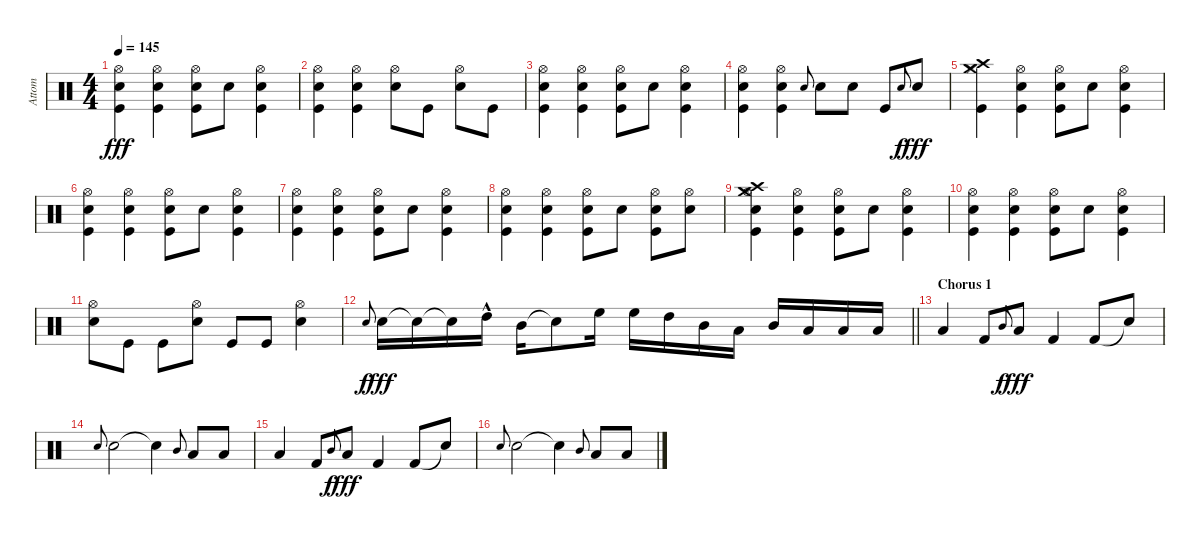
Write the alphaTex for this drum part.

\track ("Attom" "Attom") {instrument percussion}
\staff {score}
\articulation defaults
\ts (4 4)
\tempo 145
\clef neutral
\ks c
("Hi-Hat (open)" "Snare (hit) 2" "Kick (hit)").4{dy fff} ("Hi-Hat (open)" "Snare (hit) 2" "Kick (hit)").4 ("Hi-Hat (open)" "Snare (hit) 2" "Kick (hit)").8 "Snare (hit) 2".8 ("Hi-Hat (open)" "Snare (hit) 2" "Kick (hit)").4 |
("Hi-Hat (open)" "Snare (hit) 2" "Kick (hit)").4 ("Hi-Hat (open)" "Snare (hit) 2" "Kick (hit)").4 ("Hi-Hat (open)" "Snare (hit) 2").8 "Kick (hit)".8 ("Hi-Hat (open)" "Snare (hit) 2").8 "Kick (hit)".8 |
("Hi-Hat (open)" "Snare (hit) 2" "Kick (hit)").4 ("Hi-Hat (open)" "Snare (hit) 2" "Kick (hit)").4 ("Hi-Hat (open)" "Snare (hit) 2" "Kick (hit)").8 "Snare (hit) 2".8 ("Hi-Hat (open)" "Snare (hit) 2" "Kick (hit)").4 |
("Hi-Hat (open)" "Snare (hit) 2" "Kick (hit)").4 ("Hi-Hat (open)" "Snare (hit) 2" "Kick (hit)").4 "Snare (hit) 2".8{gr onbeat} "Snare (hit) 2".8 "Snare (hit) 2".8 "Kick (hit)".8 "Snare (hit) 2".8{gr onbeat dy f} "Snare (hit) 2".8{dy fff} |
("Hi-Hat (closed)" "Crash medium (hit)" "Crash high (hit)" "Kick (hit)").4 ("Hi-Hat (open)" "Snare (hit) 2" "Kick (hit)").4 ("Hi-Hat (open)" "Snare (hit) 2" "Kick (hit)").8 "Snare (hit) 2".8 ("Hi-Hat (open)" "Snare (hit) 2" "Kick (hit)").4 |
("Hi-Hat (open)" "Snare (hit) 2" "Kick (hit)").4 ("Hi-Hat (open)" "Snare (hit) 2" "Kick (hit)").4 ("Hi-Hat (open)" "Snare (hit) 2" "Kick (hit)").8 "Snare (hit) 2".8 ("Hi-Hat (open)" "Snare (hit) 2" "Kick (hit)").4 |
("Hi-Hat (open)" "Snare (hit) 2" "Kick (hit)").4 ("Hi-Hat (open)" "Snare (hit) 2" "Kick (hit)").4 ("Hi-Hat (open)" "Snare (hit) 2" "Kick (hit)").8 "Snare (hit) 2".8 ("Hi-Hat (open)" "Snare (hit) 2" "Kick (hit)").4 |
("Hi-Hat (open)" "Snare (hit) 2" "Kick (hit)").4 ("Hi-Hat (open)" "Snare (hit) 2" "Kick (hit)").4 ("Hi-Hat (open)" "Snare (hit) 2" "Kick (hit)").8 "Snare (hit) 2".8 ("Hi-Hat (open)" "Snare (hit) 2" "Kick (hit)").8 ("Hi-Hat (open)" "Snare (hit) 2").8 |
("Hi-Hat (open)" "Snare (hit) 2" "Crash high (hit)" "Crash medium (hit)" "Kick (hit)").4 ("Hi-Hat (open)" "Snare (hit) 2" "Kick (hit)").4 ("Hi-Hat (open)" "Snare (hit) 2" "Kick (hit)").8 "Snare (hit) 2".8 ("Hi-Hat (open)" "Snare (hit) 2" "Kick (hit)").4 |
("Hi-Hat (open)" "Snare (hit) 2" "Kick (hit)").4 ("Hi-Hat (open)" "Snare (hit) 2" "Kick (hit)").4 ("Hi-Hat (open)" "Snare (hit) 2" "Kick (hit)").8 "Snare (hit) 2".8 ("Hi-Hat (open)" "Snare (hit) 2" "Kick (hit)").4 |
("Hi-Hat (open)" "Snare (hit) 2").8 "Kick (hit)".8 "Kick (hit)".8 ("Hi-Hat (open)" "Snare (hit) 2").8 "Kick (hit)".8 "Kick (hit)".8 ("Snare (hit) 2" "Hi-Hat (open)").4 |
\barLineRight lightlight "Snare (hit) 2".8{gr onbeat dy f} "Snare (hit) 2".16{dy fff} "Snare (hit) 2"{t}.16 "Snare (hit) 2"{t}.16 "High Tom (hit)"{hac}.16 "Mid Tom (hit)".16 "Snare (hit)"{t}.8 "High Floor Tom (hit)".16 "High Floor Tom (hit)".16 "High Tom (hit)".16 "Mid Tom (hit)".16 "Low Tom (hit)".16 "Mid Tom (hit)".16 "Low Tom (hit)".16 "Low Floor Tom (hit)".16 "Low Floor Tom (hit)".16
|
\section ("" "Chorus 1")
"Low Floor Tom (hit)".4 "Kick (hit) 2".8 "Mid Tom (hit)".8{gr onbeat dy f} "Low Floor Tom (hit)".8{dy fff} "Kick (hit) 2".4 "Kick (hit) 2".8 "Snare (hit)"{t}.8 |
"Snare (hit) 2".8{gr onbeat} "Snare (hit) 2".2 "Snare (hit)"{t}.4 "Mid Tom (hit)".8{gr onbeat} "Low Floor Tom (hit)".8 "Low Floor Tom (hit)".8 |
"Low Floor Tom (hit)".4 "Kick (hit) 2".8 "Mid Tom (hit)".8{gr onbeat dy f} "Low Floor Tom (hit)".8{dy fff} "Kick (hit) 2".4 "Kick (hit) 2".8 "Snare (hit)"{t}.8 |
"Snare (hit) 2".8{gr onbeat} "Snare (hit) 2".2 "Snare (hit)"{t}.4 "Mid Tom (hit)".8{gr onbeat} "Low Floor Tom (hit)".8 "Low Floor Tom (hit)".8
